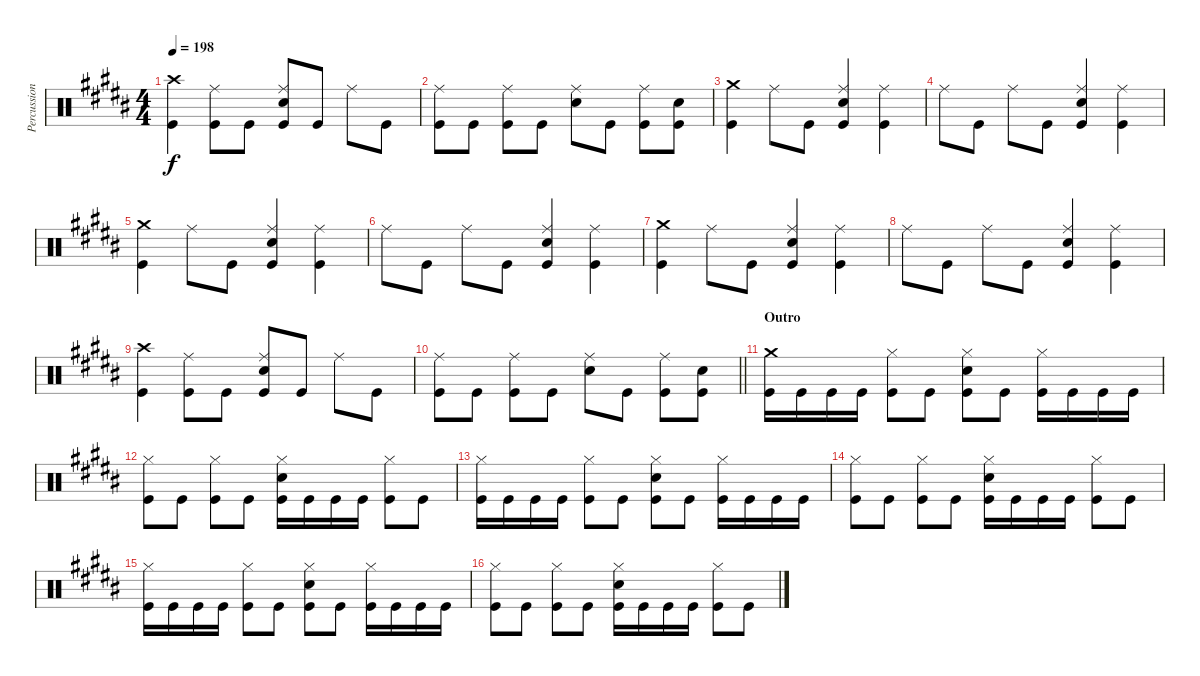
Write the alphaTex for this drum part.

\track ("Percussion" "Percussion") {instrument percussion}
\staff {score}
\articulation defaults
\ts (4 4)
\tempo 198
\clef neutral
\ks b
("Crash high (hit)" "Kick (hit)").4{dy f} ("Ride (middle)" "Kick (hit)").8 "Kick (hit)".8 ("Ride (middle)" "Electric Snare (hit)" "Kick (hit)").8 "Kick (hit)".8 "Ride (middle)".8 "Kick (hit)".8 |
("Ride (middle)" "Kick (hit)").8 "Kick (hit)".8 ("Ride (middle)" "Kick (hit)").8 "Kick (hit)".8 ("Ride (middle)" "Electric Snare (hit)").8 "Kick (hit)".8 ("Ride (middle)" "Kick (hit)").8 ("Electric Snare (hit)" "Kick (hit)").8 |
("Crash medium (hit)" "Kick (hit)").4 "Ride (middle)".8 "Kick (hit)".8 ("Ride (middle)" "Electric Snare (hit)" "Kick (hit)").4 ("Ride (middle)" "Kick (hit)").4 |
"Ride (middle)".8 "Kick (hit)".8 "Ride (middle)".8 "Kick (hit)".8 ("Ride (middle)" "Electric Snare (hit)" "Kick (hit)").4 ("Ride (middle)" "Kick (hit)").4 |
("Crash medium (hit)" "Kick (hit)").4 "Ride (middle)".8 "Kick (hit)".8 ("Ride (middle)" "Electric Snare (hit)" "Kick (hit)").4 ("Ride (middle)" "Kick (hit)").4 |
"Ride (middle)".8 "Kick (hit)".8 "Ride (middle)".8 "Kick (hit)".8 ("Ride (middle)" "Electric Snare (hit)" "Kick (hit)").4 ("Ride (middle)" "Kick (hit)").4 |
("Crash medium (hit)" "Kick (hit)").4 "Ride (middle)".8 "Kick (hit)".8 ("Ride (middle)" "Electric Snare (hit)" "Kick (hit)").4 ("Ride (middle)" "Kick (hit)").4 |
"Ride (middle)".8 "Kick (hit)".8 "Ride (middle)".8 "Kick (hit)".8 ("Ride (middle)" "Electric Snare (hit)" "Kick (hit)").4 ("Ride (middle)" "Kick (hit)").4 |
("Crash high (hit)" "Kick (hit)").4 ("Ride (middle)" "Kick (hit)").8 "Kick (hit)".8 ("Ride (middle)" "Electric Snare (hit)" "Kick (hit)").8 "Kick (hit)".8 "Ride (middle)".8 "Kick (hit)".8 |
\barLineRight lightlight
("Ride (middle)" "Kick (hit)").8 "Kick (hit)".8 ("Ride (middle)" "Kick (hit)").8 "Kick (hit)".8 ("Ride (middle)" "Electric Snare (hit)").8 "Kick (hit)".8 ("Ride (middle)" "Kick (hit)").8 ("Electric Snare (hit)" "Kick (hit)").8 |
\section ("" "Outro")
("Crash medium (hit)" "Kick (hit)").16 "Kick (hit)".16 "Kick (hit)".16 "Kick (hit)".16 ("Hi-Hat (closed)" "Kick (hit)").8 "Kick (hit)".8 ("Hi-Hat (closed)" "Electric Snare (hit)" "Kick (hit)").8 "Kick (hit)".8 ("Hi-Hat (closed)" "Kick (hit)").16 "Kick (hit)".16 "Kick (hit)".16 "Kick (hit)".16 |
("Hi-Hat (closed)" "Kick (hit)").8 "Kick (hit)".8 ("Hi-Hat (closed)" "Kick (hit)").8 "Kick (hit)".8 ("Hi-Hat (closed)" "Electric Snare (hit)" "Kick (hit)").16 "Kick (hit)".16 "Kick (hit)".16 "Kick (hit)".16 ("Hi-Hat (closed)" "Kick (hit)").8 "Kick (hit)".8 |
("Hi-Hat (closed)" "Kick (hit)").16 "Kick (hit)".16 "Kick (hit)".16 "Kick (hit)".16 ("Hi-Hat (closed)" "Kick (hit)").8 "Kick (hit)".8 ("Hi-Hat (closed)" "Electric Snare (hit)" "Kick (hit)").8 "Kick (hit)".8 ("Hi-Hat (closed)" "Kick (hit)").16 "Kick (hit)".16 "Kick (hit)".16 "Kick (hit)".16 |
("Hi-Hat (closed)" "Kick (hit)").8 "Kick (hit)".8 ("Hi-Hat (closed)" "Kick (hit)").8 "Kick (hit)".8 ("Hi-Hat (closed)" "Electric Snare (hit)" "Kick (hit)").16 "Kick (hit)".16 "Kick (hit)".16 "Kick (hit)".16 ("Hi-Hat (closed)" "Kick (hit)").8 "Kick (hit)".8 |
("Hi-Hat (closed)" "Kick (hit)").16 "Kick (hit)".16 "Kick (hit)".16 "Kick (hit)".16 ("Hi-Hat (closed)" "Kick (hit)").8 "Kick (hit)".8 ("Hi-Hat (closed)" "Electric Snare (hit)" "Kick (hit)").8 "Kick (hit)".8 ("Hi-Hat (closed)" "Kick (hit)").16 "Kick (hit)".16 "Kick (hit)".16 "Kick (hit)".16 |
("Hi-Hat (closed)" "Kick (hit)").8 "Kick (hit)".8 ("Hi-Hat (closed)" "Kick (hit)").8 "Kick (hit)".8 ("Hi-Hat (closed)" "Electric Snare (hit)" "Kick (hit)").16 "Kick (hit)".16 "Kick (hit)".16 "Kick (hit)".16 ("Hi-Hat (closed)" "Kick (hit)").8 "Kick (hit)".8
